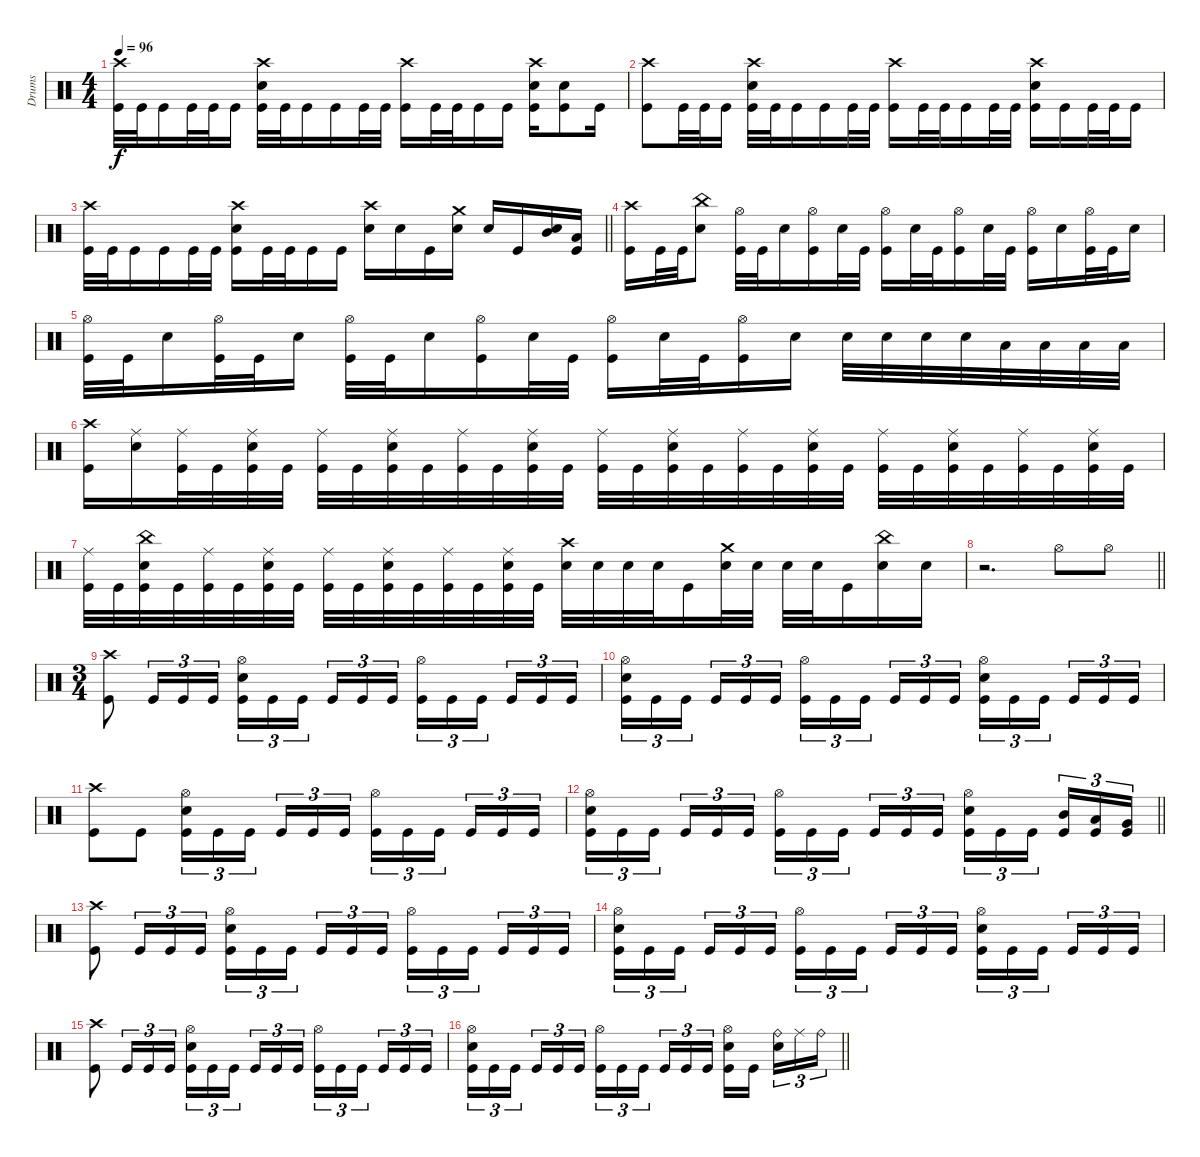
\track ("Drums" "Drums") {instrument percussion}
\staff
\articulation defaults
\ts (4 4)
\tempo 96
\clef neutral
\ks c
("Crash high (hit)" "Kick (hit)").32{dy f} "Kick (hit)".32 "Kick (hit)".16 "Kick (hit)".32 "Kick (hit)".32 "Kick (hit)".16 ("Crash high (hit)" "Electric Snare (hit)" "Kick (hit)").32 "Kick (hit)".32 "Kick (hit)".16 "Kick (hit)".16 "Kick (hit)".32 "Kick (hit)".32 ("Crash high (hit)" "Kick (hit)").16 "Kick (hit)".32 "Kick (hit)".32 "Kick (hit)".16 "Kick (hit)".16 ("Crash high (hit)" "Electric Snare (hit)" "Kick (hit)").16 ("Electric Snare (hit)" "Kick (hit)").8 "Kick (hit)".16 |
("Crash high (hit)" "Kick (hit)").8 "Kick (hit)".32 "Kick (hit)".32 "Kick (hit)".16 ("Crash high (hit)" "Electric Snare (hit)" "Kick (hit)").32 "Kick (hit)".32 "Kick (hit)".16 "Kick (hit)".16 "Kick (hit)".32 "Kick (hit)".32 ("Crash high (hit)" "Kick (hit)").16 "Kick (hit)".32 "Kick (hit)".32 "Kick (hit)".16 "Kick (hit)".32 "Kick (hit)".32 ("Crash high (hit)" "Electric Snare (hit)" "Kick (hit)").16 "Kick (hit)".16 "Kick (hit)".32 "Kick (hit)".32 "Kick (hit)".16 |
\barLineRight lightlight
("Crash high (hit)" "Kick (hit)").32 "Kick (hit)".32 "Kick (hit)".16 "Kick (hit)".16 "Kick (hit)".32 "Kick (hit)".32 ("Crash high (hit)" "Electric Snare (hit)" "Kick (hit)").16 "Kick (hit)".32 "Kick (hit)".32 "Kick (hit)".16 "Kick (hit)".16 ("Crash high (hit)" "Electric Snare (hit)").16 "Electric Snare (hit)".16 "Kick (hit)".16 ("Crash medium (hit)" "Electric Snare (hit)").16 "Electric Snare (hit)".16 "Kick (hit)".16 ("Mid Tom (hit)" "Electric Snare (hit)").16 ("Low Tom (hit)" "Kick (hit)").16 |
("Crash high (hit)" "Kick (hit)").16 "Kick (hit)".32 "Kick (hit)".32 ("China (hit)" "Electric Snare (hit)").8 ("Hi-Hat (open)" "Kick (hit)").32 "Kick (hit)".32 "Electric Snare (hit)".16 ("Hi-Hat (open)" "Kick (hit)").16 "Electric Snare (hit)".32 "Kick (hit)".32 ("Hi-Hat (open)" "Kick (hit)").16 "Electric Snare (hit)".32 "Kick (hit)".32 ("Hi-Hat (open)" "Kick (hit)").16 "Electric Snare (hit)".32 "Kick (hit)".32 ("Hi-Hat (open)" "Kick (hit)").16 "Electric Snare (hit)".16 ("Hi-Hat (open)" "Kick (hit)").32 "Kick (hit)".32 "Electric Snare (hit)".16 |
("Hi-Hat (open)" "Kick (hit)").32 "Kick (hit)".32 "Electric Snare (hit)".16 ("Hi-Hat (open)" "Kick (hit)").32 "Kick (hit)".32 "Electric Snare (hit)".16 ("Hi-Hat (open)" "Kick (hit)").32 "Kick (hit)".32 "Electric Snare (hit)".16 ("Hi-Hat (open)" "Kick (hit)").16 "Electric Snare (hit)".32 "Kick (hit)".32 ("Hi-Hat (open)" "Kick (hit)").16 "Electric Snare (hit)".32 "Kick (hit)".32 ("Hi-Hat (open)" "Kick (hit)").16 "Electric Snare (hit)".16 "Electric Snare (hit)".32 "Electric Snare (hit)".32 "Electric Snare (hit)".32 "Electric Snare (hit)".32 "Low Tom (hit)".32 "Low Tom (hit)".32 "Low Tom (hit)".32 "Low Tom (hit)".32 |
("Crash high (hit)" "Kick (hit)").16 ("Ride (middle)" "Electric Snare (hit)").16 ("Ride (middle)" "Kick (hit)").32 "Kick (hit)".32 ("Ride (middle)" "Electric Snare (hit)" "Kick (hit)").32 "Kick (hit)".32 ("Ride (middle)" "Kick (hit)").32 "Kick (hit)".32 ("Ride (middle)" "Electric Snare (hit)" "Kick (hit)").32 "Kick (hit)".32 ("Ride (middle)" "Kick (hit)").32 "Kick (hit)".32 ("Ride (middle)" "Electric Snare (hit)" "Kick (hit)").32 "Kick (hit)".32 ("Ride (middle)" "Kick (hit)").32 "Kick (hit)".32 ("Ride (middle)" "Electric Snare (hit)" "Kick (hit)").32 "Kick (hit)".32 ("Ride (middle)" "Kick (hit)").32 "Kick (hit)".32 ("Ride (middle)" "Electric Snare (hit)" "Kick (hit)").32 "Kick (hit)".32 ("Ride (middle)" "Kick (hit)").32 "Kick (hit)".32 ("Ride (middle)" "Electric Snare (hit)" "Kick (hit)").32 "Kick (hit)".32 ("Ride (middle)" "Kick (hit)").32 "Kick (hit)".32 ("Ride (middle)" "Electric Snare (hit)" "Kick (hit)").32 "Kick (hit)".32 |
("Ride (middle)" "Kick (hit)").32 "Kick (hit)".32 ("China (hit)" "Electric Snare (hit)" "Kick (hit)").32 "Kick (hit)".32 ("Ride (middle)" "Kick (hit)").32 "Kick (hit)".32 ("Ride (middle)" "Electric Snare (hit)" "Kick (hit)").32 "Kick (hit)".32 ("Ride (middle)" "Kick (hit)").32 "Kick (hit)".32 ("Ride (middle)" "Electric Snare (hit)" "Kick (hit)").32 "Kick (hit)".32 ("Ride (middle)" "Kick (hit)").32 "Kick (hit)".32 ("Ride (middle)" "Electric Snare (hit)" "Kick (hit)").32 "Kick (hit)".32 ("Crash high (hit)" "Electric Snare (hit)").32 "Electric Snare (hit)".32 "Electric Snare (hit)".32 "Electric Snare (hit)".32 "Kick (hit)".16 ("Crash medium (hit)" "Electric Snare (hit)").32 "Electric Snare (hit)".32 "Electric Snare (hit)".32 "Electric Snare (hit)".32 "Kick (hit)".16 ("China (hit)" "Electric Snare (hit)").16 "Electric Snare (hit)".16 |
\barLineRight lightlight
r.2{d} "Hi-Hat (open)".8 "Hi-Hat (open)".8 |
\ts (3 4)
\section ("" "")
("Crash high (hit)" "Kick (hit)").8 "Kick (hit)".16{tu (3 2)} "Kick (hit)".16{tu (3 2)} "Kick (hit)".16{tu (3 2)} ("Hi-Hat (open)" "Electric Snare (hit)" "Kick (hit)").16{tu (3 2)} "Kick (hit)".16{tu (3 2)} "Kick (hit)".16{tu (3 2) beam splitsecondary} "Kick (hit)".16{tu (3 2)} "Kick (hit)".16{tu (3 2)} "Kick (hit)".16{tu (3 2)} ("Hi-Hat (open)" "Kick (hit)").16{tu (3 2)} "Kick (hit)".16{tu (3 2)} "Kick (hit)".16{tu (3 2) beam splitsecondary} "Kick (hit)".16{tu (3 2)} "Kick (hit)".16{tu (3 2)} "Kick (hit)".16{tu (3 2)} |
("Hi-Hat (open)" "Electric Snare (hit)" "Kick (hit)").16{tu (3 2)} "Kick (hit)".16{tu (3 2)} "Kick (hit)".16{tu (3 2) beam splitsecondary} "Kick (hit)".16{tu (3 2)} "Kick (hit)".16{tu (3 2)} "Kick (hit)".16{tu (3 2)} ("Hi-Hat (open)" "Kick (hit)").16{tu (3 2)} "Kick (hit)".16{tu (3 2)} "Kick (hit)".16{tu (3 2) beam splitsecondary} "Kick (hit)".16{tu (3 2)} "Kick (hit)".16{tu (3 2)} "Kick (hit)".16{tu (3 2)} ("Hi-Hat (open)" "Electric Snare (hit)" "Kick (hit)").16{tu (3 2)} "Kick (hit)".16{tu (3 2)} "Kick (hit)".16{tu (3 2) beam splitsecondary} "Kick (hit)".16{tu (3 2)} "Kick (hit)".16{tu (3 2)} "Kick (hit)".16{tu (3 2)} |
("Crash high (hit)" "Kick (hit)").8 "Kick (hit)".8 ("Hi-Hat (open)" "Electric Snare (hit)" "Kick (hit)").16{tu (3 2)} "Kick (hit)".16{tu (3 2)} "Kick (hit)".16{tu (3 2) beam splitsecondary} "Kick (hit)".16{tu (3 2)} "Kick (hit)".16{tu (3 2)} "Kick (hit)".16{tu (3 2)} ("Hi-Hat (open)" "Kick (hit)").16{tu (3 2)} "Kick (hit)".16{tu (3 2)} "Kick (hit)".16{tu (3 2) beam splitsecondary} "Kick (hit)".16{tu (3 2)} "Kick (hit)".16{tu (3 2)} "Kick (hit)".16{tu (3 2)} |
\barLineRight lightlight
("Hi-Hat (open)" "Electric Snare (hit)" "Kick (hit)").16{tu (3 2)} "Kick (hit)".16{tu (3 2)} "Kick (hit)".16{tu (3 2) beam splitsecondary} "Kick (hit)".16{tu (3 2)} "Kick (hit)".16{tu (3 2)} "Kick (hit)".16{tu (3 2)} ("Hi-Hat (open)" "Kick (hit)").16{tu (3 2)} "Kick (hit)".16{tu (3 2)} "Kick (hit)".16{tu (3 2) beam splitsecondary} "Kick (hit)".16{tu (3 2)} "Kick (hit)".16{tu (3 2)} "Kick (hit)".16{tu (3 2)} ("Hi-Hat (open)" "Electric Snare (hit)" "Kick (hit)").16{tu (3 2)} "Kick (hit)".16{tu (3 2)} "Kick (hit)".16{tu (3 2) beam splitsecondary} ("Mid Tom (hit)" "Kick (hit)").16{tu (3 2)} ("Low Tom (hit)" "Kick (hit)").16{tu (3 2)} ("Very Low Tom (hit)" "Kick (hit)").16{tu (3 2)} |
("Crash high (hit)" "Kick (hit)").8 "Kick (hit)".16{tu (3 2)} "Kick (hit)".16{tu (3 2)} "Kick (hit)".16{tu (3 2)} ("Hi-Hat (open)" "Electric Snare (hit)" "Kick (hit)").16{tu (3 2)} "Kick (hit)".16{tu (3 2)} "Kick (hit)".16{tu (3 2) beam splitsecondary} "Kick (hit)".16{tu (3 2)} "Kick (hit)".16{tu (3 2)} "Kick (hit)".16{tu (3 2)} ("Hi-Hat (open)" "Kick (hit)").16{tu (3 2)} "Kick (hit)".16{tu (3 2)} "Kick (hit)".16{tu (3 2) beam splitsecondary} "Kick (hit)".16{tu (3 2)} "Kick (hit)".16{tu (3 2)} "Kick (hit)".16{tu (3 2)} |
("Hi-Hat (open)" "Electric Snare (hit)" "Kick (hit)").16{tu (3 2)} "Kick (hit)".16{tu (3 2)} "Kick (hit)".16{tu (3 2) beam splitsecondary} "Kick (hit)".16{tu (3 2)} "Kick (hit)".16{tu (3 2)} "Kick (hit)".16{tu (3 2)} ("Hi-Hat (open)" "Kick (hit)").16{tu (3 2)} "Kick (hit)".16{tu (3 2)} "Kick (hit)".16{tu (3 2) beam splitsecondary} "Kick (hit)".16{tu (3 2)} "Kick (hit)".16{tu (3 2)} "Kick (hit)".16{tu (3 2)} ("Hi-Hat (open)" "Electric Snare (hit)" "Kick (hit)").16{tu (3 2)} "Kick (hit)".16{tu (3 2)} "Kick (hit)".16{tu (3 2) beam splitsecondary} "Kick (hit)".16{tu (3 2)} "Kick (hit)".16{tu (3 2)} "Kick (hit)".16{tu (3 2)} |
("Crash high (hit)" "Kick (hit)").8 "Kick (hit)".16{tu (3 2)} "Kick (hit)".16{tu (3 2)} "Kick (hit)".16{tu (3 2)} ("Hi-Hat (open)" "Electric Snare (hit)" "Kick (hit)").16{tu (3 2)} "Kick (hit)".16{tu (3 2)} "Kick (hit)".16{tu (3 2) beam splitsecondary} "Kick (hit)".16{tu (3 2)} "Kick (hit)".16{tu (3 2)} "Kick (hit)".16{tu (3 2)} ("Hi-Hat (open)" "Kick (hit)").16{tu (3 2)} "Kick (hit)".16{tu (3 2)} "Kick (hit)".16{tu (3 2) beam splitsecondary} "Kick (hit)".16{tu (3 2)} "Kick (hit)".16{tu (3 2)} "Kick (hit)".16{tu (3 2)} |
\barLineRight lightlight
("Hi-Hat (open)" "Electric Snare (hit)" "Kick (hit)").16{tu (3 2)} "Kick (hit)".16{tu (3 2)} "Kick (hit)".16{tu (3 2) beam splitsecondary} "Kick (hit)".16{tu (3 2)} "Kick (hit)".16{tu (3 2)} "Kick (hit)".16{tu (3 2)} ("Hi-Hat (open)" "Kick (hit)").16{tu (3 2)} "Kick (hit)".16{tu (3 2)} "Kick (hit)".16{tu (3 2) beam splitsecondary} "Kick (hit)".16{tu (3 2)} "Kick (hit)".16{tu (3 2)} "Kick (hit)".16{tu (3 2)} ("Hi-Hat (open)" "Electric Snare (hit)" "Kick (hit)").16 "Kick (hit)".16{beam splitsecondary} ("Ride (bell)" "Electric Snare (hit)").16{tu (3 2)} "Ride (middle)".16{tu (3 2)} "Ride (bell)".16{tu (3 2)}
